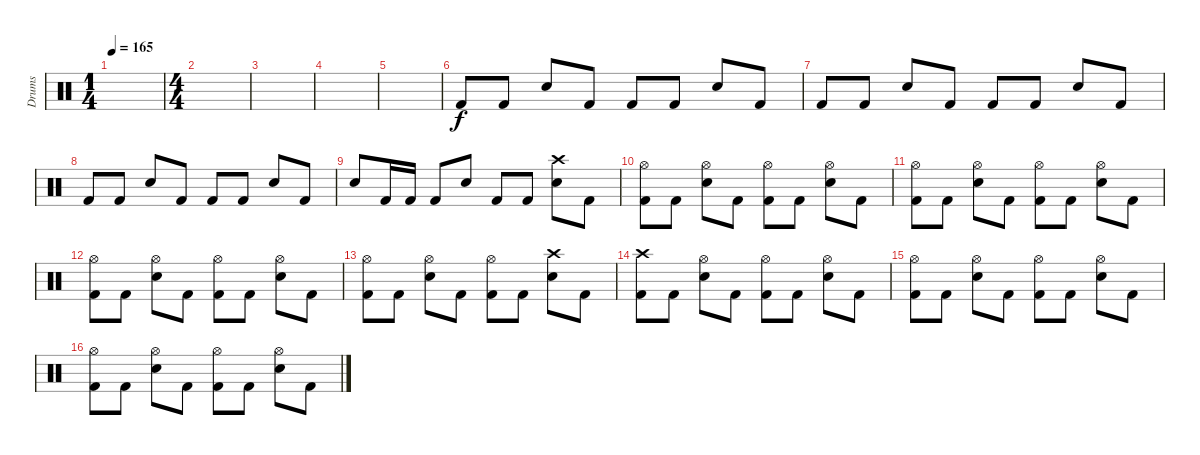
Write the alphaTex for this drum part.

\track ("Drums" "Drums") {instrument percussion}
\staff {score}
\articulation defaults
\ts (1 4)
\tempo 165
\clef neutral
\ks c
|
\ts (4 4)
|
|
|
|
"Kick (hit) 2".8 "Kick (hit) 2".8 "Snare (hit) 2".8 "Kick (hit) 2".8 "Kick (hit) 2".8 "Kick (hit) 2".8 "Snare (hit) 2".8 "Kick (hit) 2".8 |
"Kick (hit) 2".8 "Kick (hit) 2".8 "Snare (hit) 2".8 "Kick (hit) 2".8 "Kick (hit) 2".8 "Kick (hit) 2".8 "Snare (hit) 2".8 "Kick (hit) 2".8 |
"Kick (hit) 2".8 "Kick (hit) 2".8 "Snare (hit) 2".8 "Kick (hit) 2".8 "Kick (hit) 2".8 "Kick (hit) 2".8 "Snare (hit) 2".8 "Kick (hit) 2".8 |
"Snare (hit) 2".8 "Kick (hit) 2".16 "Kick (hit) 2".16 "Kick (hit) 2".8 "Snare (hit) 2".8 "Kick (hit) 2".8 "Kick (hit) 2".8 ("Crash high (hit)" "Snare (hit) 2").8 "Kick (hit) 2".8 |
("Hi-Hat (open)" "Kick (hit) 2").8 "Kick (hit) 2".8 ("Hi-Hat (open)" "Snare (hit) 2").8 "Kick (hit) 2".8 ("Hi-Hat (open)" "Kick (hit) 2").8 "Kick (hit) 2".8 ("Hi-Hat (open)" "Snare (hit) 2").8 "Kick (hit) 2".8 |
("Hi-Hat (open)" "Kick (hit) 2").8 "Kick (hit) 2".8 ("Hi-Hat (open)" "Snare (hit) 2").8 "Kick (hit) 2".8 ("Hi-Hat (open)" "Kick (hit) 2").8 "Kick (hit) 2".8 ("Hi-Hat (open)" "Snare (hit) 2").8 "Kick (hit) 2".8 |
("Hi-Hat (open)" "Kick (hit) 2").8 "Kick (hit) 2".8 ("Hi-Hat (open)" "Snare (hit) 2").8 "Kick (hit) 2".8 ("Hi-Hat (open)" "Kick (hit) 2").8 "Kick (hit) 2".8 ("Hi-Hat (open)" "Snare (hit) 2").8 "Kick (hit) 2".8 |
("Hi-Hat (open)" "Kick (hit) 2").8 "Kick (hit) 2".8 ("Hi-Hat (open)" "Snare (hit) 2").8 "Kick (hit) 2".8 ("Hi-Hat (open)" "Kick (hit) 2").8 "Kick (hit) 2".8 ("Crash high (hit)" "Snare (hit) 2").8 "Kick (hit) 2".8 |
("Crash high (hit)" "Kick (hit) 2").8 "Kick (hit) 2".8 ("Hi-Hat (open)" "Snare (hit) 2").8 "Kick (hit) 2".8 ("Hi-Hat (open)" "Kick (hit) 2").8 "Kick (hit) 2".8 ("Hi-Hat (open)" "Snare (hit) 2").8 "Kick (hit) 2".8 |
("Hi-Hat (open)" "Kick (hit) 2").8 "Kick (hit) 2".8 ("Hi-Hat (open)" "Snare (hit) 2").8 "Kick (hit) 2".8 ("Hi-Hat (open)" "Kick (hit) 2").8 "Kick (hit) 2".8 ("Hi-Hat (open)" "Snare (hit) 2").8 "Kick (hit) 2".8 |
("Hi-Hat (open)" "Kick (hit) 2").8 "Kick (hit) 2".8 ("Hi-Hat (open)" "Snare (hit) 2").8 "Kick (hit) 2".8 ("Hi-Hat (open)" "Kick (hit) 2").8 "Kick (hit) 2".8 ("Hi-Hat (open)" "Snare (hit) 2").8 "Kick (hit) 2".8
